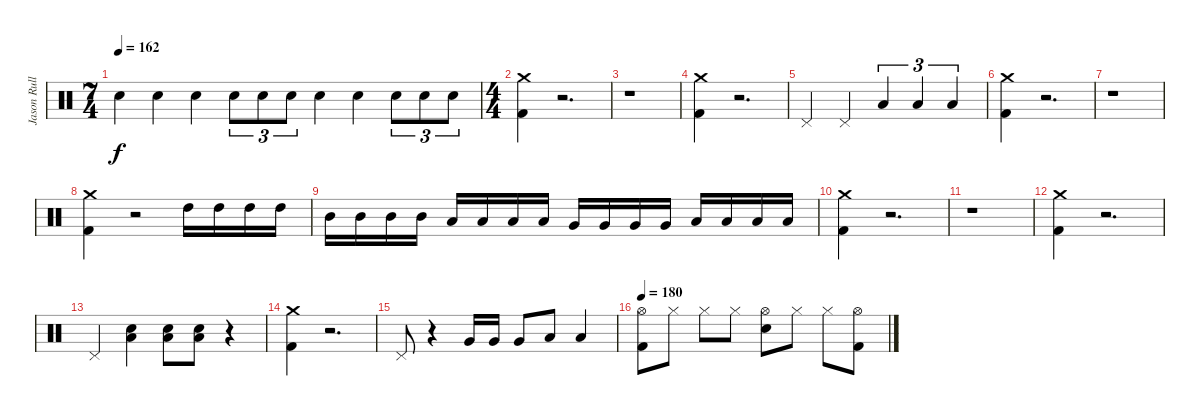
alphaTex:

\track ("Jason Rullo" "Jason Rull") {instrument percussion}
\staff {score}
\articulation defaults
\ts (7 4)
\tempo 162
\clef neutral
\ks c "Electric Snare (hit)".4{dy f} "Electric Snare (hit)".4 "Electric Snare (hit)".4 "Electric Snare (hit)".8{tu (3 2)} "Electric Snare (hit)".8{tu (3 2)} "Electric Snare (hit)".8{tu (3 2)} "Electric Snare (hit)".4 "Electric Snare (hit)".4 "Electric Snare (hit)".8{tu (3 2)} "Electric Snare (hit)".8{tu (3 2)} "Electric Snare (hit)".8{tu (3 2)}
|
\ts (4 4)
("Crash medium (hit)" "Kick (hit) 2").4 r.2{d} |
r.1 |
("Crash medium (hit)" "Kick (hit) 2").4 r.2{d} |
"Pedal Hi-Hat (hit)".4{volume 0} "Pedal Hi-Hat (hit)".4{volume 7} "Low Floor Tom (hit)".4{tu (3 2) volume 14} "Low Floor Tom (hit)".4{tu (3 2) volume 16} "Low Floor Tom (hit)".4{tu (3 2)} |
("Crash medium (hit)" "Kick (hit) 2").4 r.2{d} |
r.1 |
("Crash medium (hit)" "Kick (hit) 2").4 r.2 "High Tom (hit)".16 "High Tom (hit)".16 "High Tom (hit)".16 "High Tom (hit)".16 |
"Mid Tom (hit)".16 "Mid Tom (hit)".16 "Mid Tom (hit)".16 "Mid Tom (hit)".16 "Low Tom (hit)".16 "Low Tom (hit)".16 "Low Tom (hit)".16 "Low Tom (hit)".16 "Very Low Tom (hit)".16 "Very Low Tom (hit)".16 "Very Low Tom (hit)".16 "Very Low Tom (hit)".16 "Low Floor Tom (hit)".16 "Low Floor Tom (hit)".16 "Low Floor Tom (hit)".16 "Low Floor Tom (hit)".16 |
("Crash medium (hit)" "Kick (hit) 2").4 r.2{d} |
r.1 |
("Crash medium (hit)" "Kick (hit) 2").4 r.2{d} |
"Pedal Hi-Hat (hit)".4{volume 0} ("Electric Snare (hit)" "Low Floor Tom (hit)").4{volume 7} ("Electric Snare (hit)" "Low Floor Tom (hit)").8{volume 14} ("Electric Snare (hit)" "Low Floor Tom (hit)").8{volume 16} r.4 |
("Crash medium (hit)" "Kick (hit) 2").4 r.2{d} |
"Pedal Hi-Hat (hit)".8 r.4 "Very Low Tom (hit)".16 "Very Low Tom (hit)".16 "Very Low Tom (hit)".8 "Low Tom (hit)".8 "Low Tom (hit)".4 |
\tempo 180
("Hi-Hat (open)" "Kick (hit) 2").8 "Hi-Hat (closed)".8 "Hi-Hat (closed)".8 "Hi-Hat (closed)".8 ("Hi-Hat (open)" "Electric Snare (hit)").8 "Hi-Hat (closed)".8 "Hi-Hat (closed)".8 ("Hi-Hat (open)" "Kick (hit) 2").8
